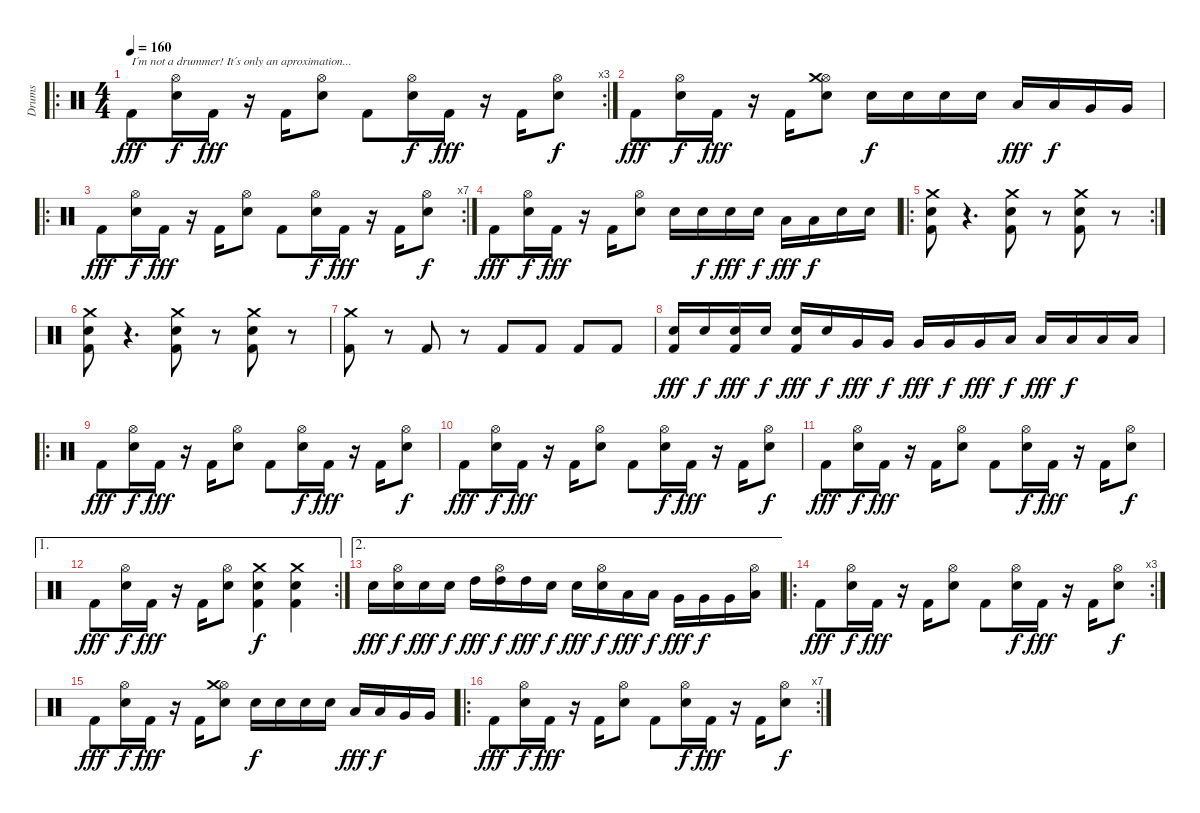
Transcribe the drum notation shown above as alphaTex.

\track ("Drums" "Drums") {instrument percussion}
\staff {score}
\articulation defaults
\ro
\rc 3
\ts (4 4)
\tempo 160
\clef neutral
\ks c "Kick (hit) 2".8{txt "I´m not a drummer! It´s only an aproximation..." dy fff}
("Electric Snare (hit)" "Hi-Hat (open)").16{dy f} "Kick (hit) 2".16{dy fff} r.16 "Kick (hit) 2".16 ("Electric Snare (hit)" "Hi-Hat (open)").8 "Kick (hit) 2".8 ("Electric Snare (hit)" "Hi-Hat (open)").16{dy f} "Kick (hit) 2".16{dy fff} r.16 "Kick (hit) 2".16 ("Electric Snare (hit)" "Hi-Hat (open)").8{dy f} |
"Kick (hit) 2".8{dy fff} ("Electric Snare (hit)" "Hi-Hat (open)").16{dy f} "Kick (hit) 2".16{dy fff} r.16 "Kick (hit) 2".16 ("Electric Snare (hit)" "Hi-Hat (open)" "Crash medium (hit)").8 "Electric Snare (hit)".16{dy f} "Electric Snare (hit)".16 "Electric Snare (hit)".16 "Electric Snare (hit)".16 "Low Tom (hit)".16{dy fff} "Low Tom (hit)".16{dy f} "Very Low Tom (hit)".16 "Very Low Tom (hit)".16 |
\ro
\rc 7 "Kick (hit) 2".8{dy fff}
("Electric Snare (hit)" "Hi-Hat (open)").16{dy f} "Kick (hit) 2".16{dy fff} r.16 "Kick (hit) 2".16 ("Electric Snare (hit)" "Hi-Hat (open)").8 "Kick (hit) 2".8 ("Electric Snare (hit)" "Hi-Hat (open)").16{dy f} "Kick (hit) 2".16{dy fff} r.16 "Kick (hit) 2".16 ("Electric Snare (hit)" "Hi-Hat (open)").8{dy f} |
"Kick (hit) 2".8{dy fff} ("Electric Snare (hit)" "Hi-Hat (open)").16{dy f} "Kick (hit) 2".16{dy fff} r.16 "Kick (hit) 2".16 ("Electric Snare (hit)" "Hi-Hat (open)").8 "Electric Snare (hit)".16 "Electric Snare (hit)".16{dy f} "Electric Snare (hit)".16{dy fff} "Electric Snare (hit)".16{dy f} "Low Floor Tom (hit)".16{dy fff} "Low Floor Tom (hit)".16{dy f} "Electric Snare (hit)".16 "Electric Snare (hit)".16 |
\ro
\rc 2
("Electric Snare (hit)" "Kick (hit) 2" "Crash medium (hit)").8 r.4{d} ("Electric Snare (hit)" "Kick (hit) 2" "Crash medium (hit)").8 r.8 ("Electric Snare (hit)" "Kick (hit) 2" "Crash medium (hit)").8 r.8 |
("Electric Snare (hit)" "Kick (hit) 2" "Crash medium (hit)").8 r.4{d} ("Electric Snare (hit)" "Kick (hit) 2" "Crash medium (hit)").8 r.8 ("Electric Snare (hit)" "Kick (hit) 2" "Crash medium (hit)").8 r.8 |
("Kick (hit) 2" "Crash medium (hit)").8 r.8 "Kick (hit) 2".8 r.8 "Kick (hit) 2".8 "Kick (hit) 2".8 "Kick (hit) 2".8 "Kick (hit) 2".8 |
("Kick (hit) 2" "Electric Snare (hit)").16{dy fff} "Electric Snare (hit)".16{dy f} ("Kick (hit) 2" "Electric Snare (hit)").16{dy fff} "Electric Snare (hit)".16{dy f} ("Kick (hit) 2" "Electric Snare (hit)").16{dy fff} "Electric Snare (hit)".16{dy f} "Very Low Tom (hit)".16{dy fff} "Very Low Tom (hit)".16{dy f} "Very Low Tom (hit)".16{dy fff} "Very Low Tom (hit)".16{dy f} "Very Low Tom (hit)".16{dy fff} "Low Tom (hit)".16{dy f} "Low Tom (hit)".16{dy fff} "Low Tom (hit)".16{dy f} "Low Tom (hit)".16 "Low Tom (hit)".16 |
\ro "Kick (hit) 2".8{dy fff}
("Electric Snare (hit)" "Hi-Hat (open)").16{dy f} "Kick (hit) 2".16{dy fff} r.16 "Kick (hit) 2".16 ("Electric Snare (hit)" "Hi-Hat (open)").8 "Kick (hit) 2".8 ("Electric Snare (hit)" "Hi-Hat (open)").16{dy f} "Kick (hit) 2".16{dy fff} r.16 "Kick (hit) 2".16 ("Electric Snare (hit)" "Hi-Hat (open)").8{dy f} |
"Kick (hit) 2".8{dy fff} ("Electric Snare (hit)" "Hi-Hat (open)").16{dy f} "Kick (hit) 2".16{dy fff} r.16 "Kick (hit) 2".16 ("Electric Snare (hit)" "Hi-Hat (open)").8 "Kick (hit) 2".8 ("Electric Snare (hit)" "Hi-Hat (open)").16{dy f} "Kick (hit) 2".16{dy fff} r.16 "Kick (hit) 2".16 ("Electric Snare (hit)" "Hi-Hat (open)").8{dy f} |
"Kick (hit) 2".8{dy fff} ("Electric Snare (hit)" "Hi-Hat (open)").16{dy f} "Kick (hit) 2".16{dy fff} r.16 "Kick (hit) 2".16 ("Electric Snare (hit)" "Hi-Hat (open)").8 "Kick (hit) 2".8 ("Electric Snare (hit)" "Hi-Hat (open)").16{dy f} "Kick (hit) 2".16{dy fff} r.16 "Kick (hit) 2".16 ("Electric Snare (hit)" "Hi-Hat (open)").8{dy f} |
\ae 1
\rc 2 "Kick (hit) 2".8{dy fff}
("Electric Snare (hit)" "Hi-Hat (open)").16{dy f} "Kick (hit) 2".16{dy fff} r.16 "Kick (hit) 2".16 ("Electric Snare (hit)" "Hi-Hat (open)").8 ("Electric Snare (hit)" "Kick (hit) 2" "Crash medium (hit)").4{dy f} ("Electric Snare (hit)" "Kick (hit) 2" "Crash medium (hit)").4 |
\ae 2 "Electric Snare (hit)".16{dy fff}
("Electric Snare (hit)" "Hi-Hat (open)").16{dy f} "Electric Snare (hit)".16{dy fff} "Electric Snare (hit)".16{dy f} "High Tom (hit)".16{dy fff} ("High Tom (hit)" "Hi-Hat (open)").16{dy f} "High Tom (hit)".16{dy fff} "Electric Snare (hit)".16{dy f} "Electric Snare (hit)".16{dy fff} ("Electric Snare (hit)" "Hi-Hat (open)").16{dy f} "Low Tom (hit)".16{dy fff} "Low Tom (hit)".16{dy f} "Very Low Tom (hit)".16{dy fff} "Very Low Tom (hit)".16{dy f} "Very Low Tom (hit)".16 ("Low Floor Tom (hit)" "Hi-Hat (open)").16 |
\ro
\rc 3 "Kick (hit) 2".8{dy fff}
("Electric Snare (hit)" "Hi-Hat (open)").16{dy f} "Kick (hit) 2".16{dy fff} r.16 "Kick (hit) 2".16 ("Electric Snare (hit)" "Hi-Hat (open)").8 "Kick (hit) 2".8 ("Electric Snare (hit)" "Hi-Hat (open)").16{dy f} "Kick (hit) 2".16{dy fff} r.16 "Kick (hit) 2".16 ("Electric Snare (hit)" "Hi-Hat (open)").8{dy f} |
"Kick (hit) 2".8{dy fff} ("Electric Snare (hit)" "Hi-Hat (open)").16{dy f} "Kick (hit) 2".16{dy fff} r.16 "Kick (hit) 2".16 ("Electric Snare (hit)" "Hi-Hat (open)" "Crash medium (hit)").8 "Electric Snare (hit)".16{dy f} "Electric Snare (hit)".16 "Electric Snare (hit)".16 "Electric Snare (hit)".16 "Low Tom (hit)".16{dy fff} "Low Tom (hit)".16{dy f} "Very Low Tom (hit)".16 "Very Low Tom (hit)".16 |
\ro
\rc 7 "Kick (hit) 2".8{dy fff}
("Electric Snare (hit)" "Hi-Hat (open)").16{dy f} "Kick (hit) 2".16{dy fff} r.16 "Kick (hit) 2".16 ("Electric Snare (hit)" "Hi-Hat (open)").8 "Kick (hit) 2".8 ("Electric Snare (hit)" "Hi-Hat (open)").16{dy f} "Kick (hit) 2".16{dy fff} r.16 "Kick (hit) 2".16 ("Electric Snare (hit)" "Hi-Hat (open)").8{dy f}
